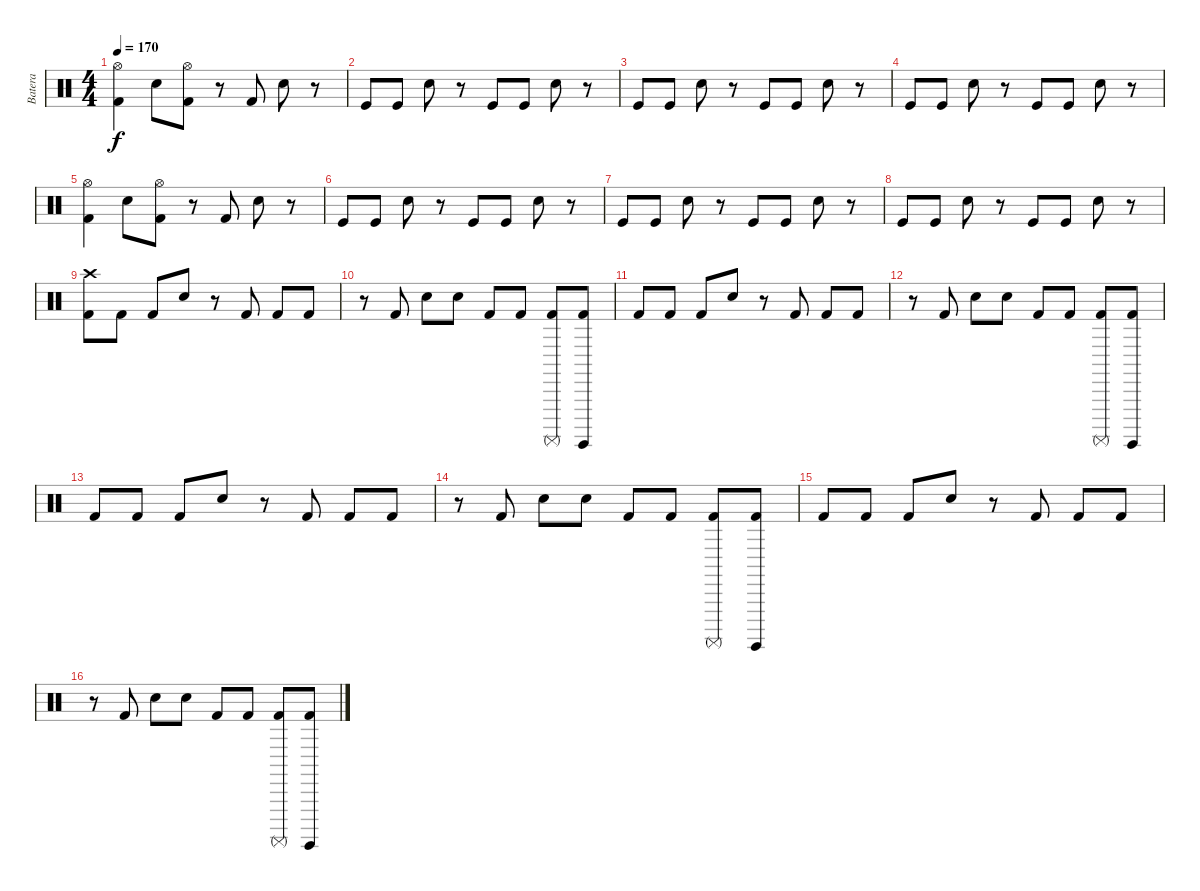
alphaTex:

\track ("Batera" "Batera") {instrument percussion}
\staff {score}
\articulation defaults
\ts (4 4)
\tempo 170
\clef neutral
\ks c
("Hi-Hat (open)" "Kick (hit) 2").4{dy f} "Electric Snare (hit)".8 ("Hi-Hat (open)" "Kick (hit) 2").8 r.8 "Kick (hit) 2".8 "Electric Snare (hit)".8 r.8 |
"Kick (hit)".8 "Kick (hit)".8 "Electric Snare (hit)".8 r.8 "Kick (hit)".8 "Kick (hit)".8 "Electric Snare (hit)".8 r.8 |
"Kick (hit)".8 "Kick (hit)".8 "Electric Snare (hit)".8 r.8 "Kick (hit)".8 "Kick (hit)".8 "Electric Snare (hit)".8 r.8 |
"Kick (hit)".8 "Kick (hit)".8 "Electric Snare (hit)".8 r.8 "Kick (hit)".8 "Kick (hit)".8 "Electric Snare (hit)".8 r.8 |
("Hi-Hat (open)" "Kick (hit) 2").4 "Electric Snare (hit)".8 ("Hi-Hat (open)" "Kick (hit) 2").8 r.8 "Kick (hit) 2".8 "Electric Snare (hit)".8 r.8 |
"Kick (hit)".8 "Kick (hit)".8 "Electric Snare (hit)".8 r.8 "Kick (hit)".8 "Kick (hit)".8 "Electric Snare (hit)".8 r.8 |
"Kick (hit)".8 "Kick (hit)".8 "Electric Snare (hit)".8 r.8 "Kick (hit)".8 "Kick (hit)".8 "Electric Snare (hit)".8 r.8 |
"Kick (hit)".8 "Kick (hit)".8 "Electric Snare (hit)".8 r.8 "Kick (hit)".8 "Kick (hit)".8 "Electric Snare (hit)".8 r.8 |
("Crash high (hit)" "Kick (hit) 2").8 "Kick (hit) 2".8 "Kick (hit) 2".8 "Electric Snare (hit)".8 r.8 "Kick (hit) 2".8 "Kick (hit) 2".8 "Kick (hit) 2".8 |
r.8 "Kick (hit) 2".8 "Electric Snare (hit)".8 "Electric Snare (hit)".8 "Kick (hit) 2".8 "Kick (hit) 2".8 ("Kick (hit) 2" "Surdo (mute)").8 ("Kick (hit) 2" "Surdo (hit)").8 |
"Kick (hit) 2".8 "Kick (hit) 2".8 "Kick (hit) 2".8 "Electric Snare (hit)".8 r.8 "Kick (hit) 2".8 "Kick (hit) 2".8 "Kick (hit) 2".8 |
r.8 "Kick (hit) 2".8 "Electric Snare (hit)".8 "Electric Snare (hit)".8 "Kick (hit) 2".8 "Kick (hit) 2".8 ("Kick (hit) 2" "Surdo (mute)").8 ("Kick (hit) 2" "Surdo (hit)").8 |
"Kick (hit) 2".8 "Kick (hit) 2".8 "Kick (hit) 2".8 "Electric Snare (hit)".8 r.8 "Kick (hit) 2".8 "Kick (hit) 2".8 "Kick (hit) 2".8 |
r.8 "Kick (hit) 2".8 "Electric Snare (hit)".8 "Electric Snare (hit)".8 "Kick (hit) 2".8 "Kick (hit) 2".8 ("Kick (hit) 2" "Surdo (mute)").8 ("Kick (hit) 2" "Surdo (hit)").8 |
"Kick (hit) 2".8 "Kick (hit) 2".8 "Kick (hit) 2".8 "Electric Snare (hit)".8 r.8 "Kick (hit) 2".8 "Kick (hit) 2".8 "Kick (hit) 2".8 |
r.8 "Kick (hit) 2".8 "Electric Snare (hit)".8 "Electric Snare (hit)".8 "Kick (hit) 2".8 "Kick (hit) 2".8 ("Kick (hit) 2" "Surdo (mute)").8 ("Kick (hit) 2" "Surdo (hit)").8
